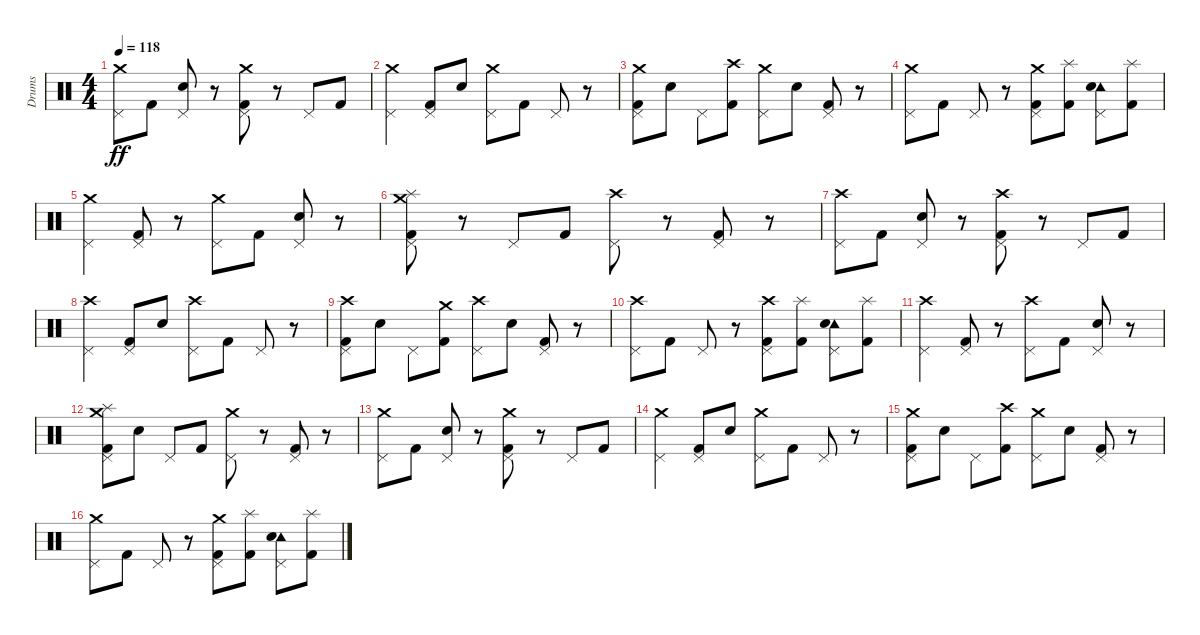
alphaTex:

\track ("Drums" "Drums") {instrument percussion}
\staff {score}
\articulation defaults
\ts (4 4)
\tempo 118
\clef neutral
\ks c
("Crash medium (hit)" "Pedal Hi-Hat (hit)").8{dy ff} "Kick (hit) 2".8 ("Pedal Hi-Hat (hit)" "Electric Snare (hit)").8 r.8 ("Crash medium (hit)" "Pedal Hi-Hat (hit)" "Kick (hit) 2").8 r.8 "Pedal Hi-Hat (hit)".8 "Kick (hit) 2".8 |
("Crash medium (hit)" "Pedal Hi-Hat (hit)").4 ("Pedal Hi-Hat (hit)" "Kick (hit) 2").8 "Electric Snare (hit)".8 ("Crash medium (hit)" "Pedal Hi-Hat (hit)").8 "Kick (hit) 2".8 "Pedal Hi-Hat (hit)".8 r.8 |
("Crash medium (hit)" "Pedal Hi-Hat (hit)" "Kick (hit) 2").8 "Electric Snare (hit)".8 "Pedal Hi-Hat (hit)".8 ("Crash high (hit)" "Kick (hit) 2").8 ("Crash medium (hit)" "Pedal Hi-Hat (hit)").8 "Electric Snare (hit)".8 ("Pedal Hi-Hat (hit)" "Kick (hit) 2").8 r.8 |
("Crash medium (hit)" "Pedal Hi-Hat (hit)").8 "Kick (hit) 2".8 "Pedal Hi-Hat (hit)".8 r.8 ("Crash medium (hit)" "Pedal Hi-Hat (hit)" "Kick (hit) 2").8 ("Splash (hit)" "Kick (hit) 2").8 ("Tambourine (hit)" "Pedal Hi-Hat (hit)" "Electric Snare (hit)").8 ("Splash (hit)" "Kick (hit) 2").8 |
("Crash medium (hit)" "Pedal Hi-Hat (hit)").4 ("Pedal Hi-Hat (hit)" "Kick (hit) 2").8 r.8 ("Crash medium (hit)" "Pedal Hi-Hat (hit)").8 "Kick (hit) 2".8 ("Pedal Hi-Hat (hit)" "Electric Snare (hit)").8 r.8 |
("Crash medium (hit)" "Splash (hit)" "Pedal Hi-Hat (hit)" "Kick (hit) 2").8 r.8 "Pedal Hi-Hat (hit)".8 "Kick (hit) 2".8 ("Crash high (hit)" "Pedal Hi-Hat (hit)").8 r.8 ("Pedal Hi-Hat (hit)" "Kick (hit) 2").8 r.8 |
("Crash high (hit)" "Pedal Hi-Hat (hit)").8 "Kick (hit) 2".8 ("Pedal Hi-Hat (hit)" "Electric Snare (hit)").8 r.8 ("Crash high (hit)" "Pedal Hi-Hat (hit)" "Kick (hit) 2").8 r.8 "Pedal Hi-Hat (hit)".8 "Kick (hit) 2".8 |
("Crash high (hit)" "Pedal Hi-Hat (hit)").4 ("Pedal Hi-Hat (hit)" "Kick (hit) 2").8 "Electric Snare (hit)".8 ("Crash high (hit)" "Pedal Hi-Hat (hit)").8 "Kick (hit) 2".8 "Pedal Hi-Hat (hit)".8 r.8 |
("Crash high (hit)" "Pedal Hi-Hat (hit)" "Kick (hit) 2").8 "Electric Snare (hit)".8 "Pedal Hi-Hat (hit)".8 ("Crash medium (hit)" "Kick (hit) 2").8 ("Crash high (hit)" "Pedal Hi-Hat (hit)").8 "Electric Snare (hit)".8 ("Pedal Hi-Hat (hit)" "Kick (hit) 2").8 r.8 |
("Crash high (hit)" "Pedal Hi-Hat (hit)").8 "Kick (hit) 2".8 "Pedal Hi-Hat (hit)".8 r.8 ("Crash high (hit)" "Pedal Hi-Hat (hit)" "Kick (hit) 2").8 ("Splash (hit)" "Kick (hit) 2").8 ("Tambourine (hit)" "Pedal Hi-Hat (hit)" "Electric Snare (hit)").8 ("Splash (hit)" "Kick (hit) 2").8 |
("Crash high (hit)" "Pedal Hi-Hat (hit)").4 ("Pedal Hi-Hat (hit)" "Kick (hit) 2").8 r.8 ("Crash high (hit)" "Pedal Hi-Hat (hit)").8 "Kick (hit) 2".8 ("Pedal Hi-Hat (hit)" "Electric Snare (hit)").8 r.8 |
("Crash medium (hit)" "Splash (hit)" "Pedal Hi-Hat (hit)" "Kick (hit) 2").8 "Electric Snare (hit)".8 "Pedal Hi-Hat (hit)".8 "Kick (hit) 2".8 ("Crash medium (hit)" "Pedal Hi-Hat (hit)").8 r.8 ("Pedal Hi-Hat (hit)" "Kick (hit) 2").8 r.8 |
("Crash medium (hit)" "Pedal Hi-Hat (hit)").8 "Kick (hit) 2".8 ("Pedal Hi-Hat (hit)" "Electric Snare (hit)").8 r.8 ("Crash medium (hit)" "Pedal Hi-Hat (hit)" "Kick (hit) 2").8 r.8 "Pedal Hi-Hat (hit)".8 "Kick (hit) 2".8 |
("Crash medium (hit)" "Pedal Hi-Hat (hit)").4 ("Pedal Hi-Hat (hit)" "Kick (hit) 2").8 "Electric Snare (hit)".8 ("Crash medium (hit)" "Pedal Hi-Hat (hit)").8 "Kick (hit) 2".8 "Pedal Hi-Hat (hit)".8 r.8 |
("Crash medium (hit)" "Pedal Hi-Hat (hit)" "Kick (hit) 2").8 "Electric Snare (hit)".8 "Pedal Hi-Hat (hit)".8 ("Crash high (hit)" "Kick (hit) 2").8 ("Crash medium (hit)" "Pedal Hi-Hat (hit)").8 "Electric Snare (hit)".8 ("Pedal Hi-Hat (hit)" "Kick (hit) 2").8 r.8 |
("Crash medium (hit)" "Pedal Hi-Hat (hit)").8 "Kick (hit) 2".8 "Pedal Hi-Hat (hit)".8 r.8 ("Crash medium (hit)" "Pedal Hi-Hat (hit)" "Kick (hit) 2").8 ("Splash (hit)" "Kick (hit) 2").8 ("Tambourine (hit)" "Pedal Hi-Hat (hit)" "Electric Snare (hit)").8 ("Splash (hit)" "Kick (hit) 2").8
